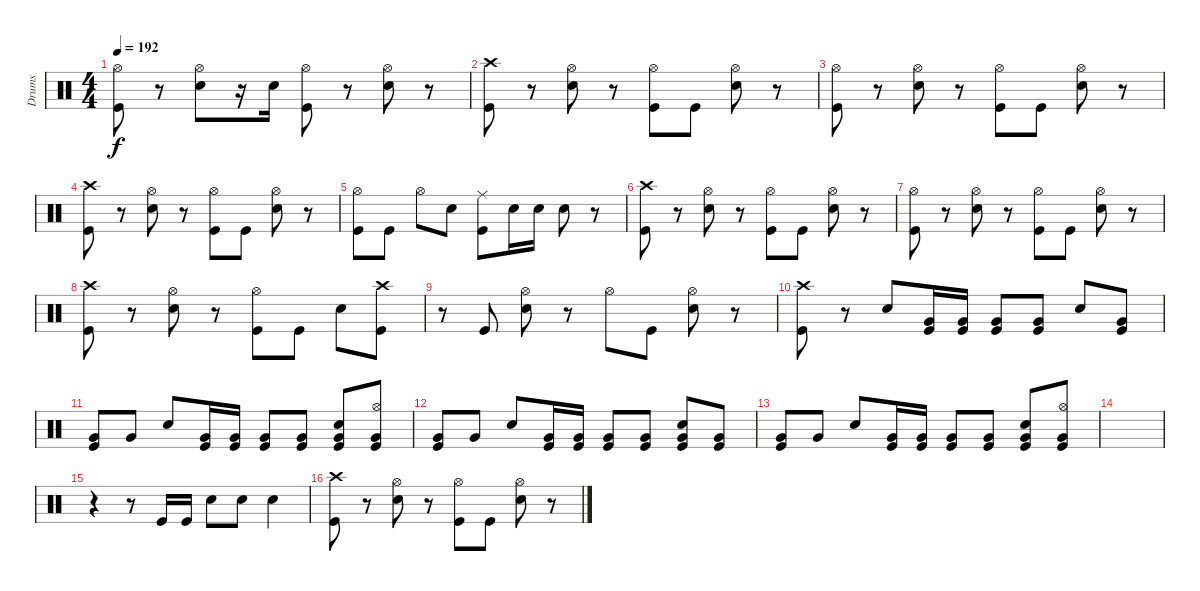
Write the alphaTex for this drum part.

\track ("Drums" "Drums") {instrument percussion}
\staff {score}
\articulation defaults
\ts (4 4)
\tempo 192
\clef neutral
\ks c
("Kick (hit)" "Hi-Hat (open)").8{dy f} r.8 ("Electric Snare (hit)" "Hi-Hat (open)").8 r.16 "Electric Snare (hit)".16 ("Kick (hit)" "Hi-Hat (open)").8 r.8 ("Electric Snare (hit)" "Hi-Hat (open)").8 r.8 |
("Kick (hit)" "Crash high (hit)").8 r.8 ("Electric Snare (hit)" "Hi-Hat (open)").8 r.8 ("Kick (hit)" "Hi-Hat (open)").8 "Kick (hit)".8 ("Electric Snare (hit)" "Hi-Hat (open)").8 r.8 |
("Kick (hit)" "Hi-Hat (open)").8 r.8 ("Electric Snare (hit)" "Hi-Hat (open)").8 r.8 ("Kick (hit)" "Hi-Hat (open)").8 "Kick (hit)".8 ("Electric Snare (hit)" "Hi-Hat (open)").8 r.8 |
("Kick (hit)" "Crash high (hit)").8 r.8 ("Electric Snare (hit)" "Hi-Hat (open)").8 r.8 ("Kick (hit)" "Hi-Hat (open)").8 "Kick (hit)".8 ("Electric Snare (hit)" "Hi-Hat (open)").8 r.8 |
("Kick (hit)" "Hi-Hat (open)").8 "Kick (hit)".8 "Hi-Hat (open)".8 "Electric Snare (hit)".8 ("Kick (hit)" "Ride (middle)").8 "Electric Snare (hit)".16 "Electric Snare (hit)".16 "Electric Snare (hit)".8 r.8 |
("Kick (hit)" "Crash high (hit)").8 r.8 ("Electric Snare (hit)" "Hi-Hat (open)").8 r.8 ("Kick (hit)" "Hi-Hat (open)").8 "Kick (hit)".8 ("Electric Snare (hit)" "Hi-Hat (open)").8 r.8 |
("Kick (hit)" "Hi-Hat (open)").8 r.8 ("Electric Snare (hit)" "Hi-Hat (open)").8 r.8 ("Kick (hit)" "Hi-Hat (open)").8 "Kick (hit)".8 ("Electric Snare (hit)" "Hi-Hat (open)").8 r.8 |
("Kick (hit)" "Crash high (hit)").8 r.8 ("Electric Snare (hit)" "Hi-Hat (open)").8 r.8 ("Kick (hit)" "Hi-Hat (open)").8 "Kick (hit)".8 "Electric Snare (hit)".8 ("Kick (hit)" "Crash high (hit)").8 |
r.8 "Kick (hit)".8 ("Electric Snare (hit)" "Hi-Hat (open)").8 r.8 "Hi-Hat (open)".8 "Kick (hit)".8 ("Electric Snare (hit)" "Hi-Hat (open)").8 r.8 |
("Kick (hit)" "Crash high (hit)").8 r.8 "Electric Snare (hit)".8 ("Kick (hit)" "Very Low Tom (hit)").16 ("Kick (hit)" "Very Low Tom (hit)").16 ("Kick (hit)" "Very Low Tom (hit)").8 ("Kick (hit)" "Very Low Tom (hit)").8 "Electric Snare (hit)".8 ("Kick (hit)" "Very Low Tom (hit)").8 |
("Kick (hit)" "Very Low Tom (hit)").8 "Very Low Tom (hit)".8 "Electric Snare (hit)".8 ("Kick (hit)" "Very Low Tom (hit)").16 ("Kick (hit)" "Very Low Tom (hit)").16 ("Kick (hit)" "Very Low Tom (hit)").8 ("Kick (hit)" "Very Low Tom (hit)").8 ("Kick (hit)" "Very Low Tom (hit)" "Electric Snare (hit)").8 ("Kick (hit)" "Very Low Tom (hit)" "Hi-Hat (open)").8 |
("Kick (hit)" "Very Low Tom (hit)").8 "Very Low Tom (hit)".8 "Electric Snare (hit)".8 ("Kick (hit)" "Very Low Tom (hit)").16 ("Kick (hit)" "Very Low Tom (hit)").16 ("Kick (hit)" "Very Low Tom (hit)").8 ("Kick (hit)" "Very Low Tom (hit)").8 ("Kick (hit)" "Very Low Tom (hit)" "Electric Snare (hit)").8 ("Kick (hit)" "Very Low Tom (hit)").8 |
("Kick (hit)" "Very Low Tom (hit)").8 "Very Low Tom (hit)".8 "Electric Snare (hit)".8 ("Kick (hit)" "Very Low Tom (hit)").16 ("Kick (hit)" "Very Low Tom (hit)").16 ("Kick (hit)" "Very Low Tom (hit)").8 ("Kick (hit)" "Very Low Tom (hit)").8 ("Kick (hit)" "Very Low Tom (hit)" "Electric Snare (hit)").8 ("Kick (hit)" "Very Low Tom (hit)" "Hi-Hat (open)").8 |
|
r.4 r.8 "Kick (hit)".16 "Kick (hit)".16 "Electric Snare (hit)".8 "Electric Snare (hit)".8 "Electric Snare (hit)".4 |
("Kick (hit)" "Crash high (hit)").8 r.8 ("Electric Snare (hit)" "Hi-Hat (open)").8 r.8 ("Kick (hit)" "Hi-Hat (open)").8 "Kick (hit)".8 ("Electric Snare (hit)" "Hi-Hat (open)").8 r.8
